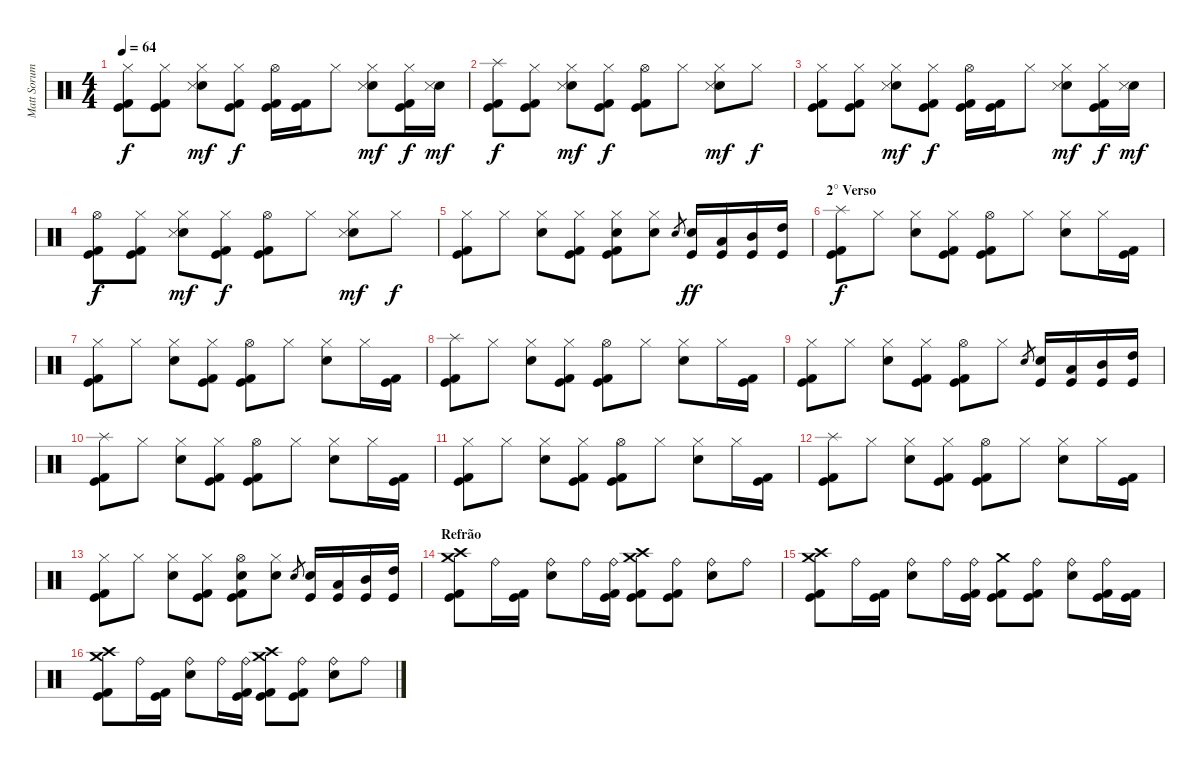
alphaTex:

\track ("Matt Sorum" "Matt Sorum") {instrument percussion}
\staff {score}
\articulation defaults
\ts (4 4)
\tempo 64
\clef neutral
\ks c
("Hi-Hat (closed)" "Kick (hit) 2" "Kick (hit)").8{dy f} ("Hi-Hat (closed)" "Kick (hit) 2" "Kick (hit)").8 ("Hi-Hat (closed)" "Electric Snare (hit)" "Snare (side stick) 3").8{dy mf} ("Hi-Hat (closed)" "Kick (hit) 2" "Kick (hit)").8{dy f} ("Hi-Hat (open)" "Kick (hit) 2" "Kick (hit)").16 ("Kick (hit)" "Kick (hit) 2").16 "Hi-Hat (closed)".8 ("Hi-Hat (closed)" "Electric Snare (hit)" "Snare (side stick) 3").8{dy mf} ("Hi-Hat (closed)" "Kick (hit) 2" "Kick (hit)").16{dy f} ("Electric Snare (hit)" "Snare (side stick) 3").16{dy mf} |
("Splash (hit)" "Kick (hit) 2" "Kick (hit)").8{dy f} ("Hi-Hat (closed)" "Kick (hit) 2" "Kick (hit)").8 ("Hi-Hat (closed)" "Electric Snare (hit)" "Snare (side stick) 3").8{dy mf} ("Hi-Hat (closed)" "Kick (hit) 2" "Kick (hit)").8{dy f} ("Hi-Hat (open)" "Kick (hit) 2" "Kick (hit)").8 "Hi-Hat (closed)".8 ("Hi-Hat (closed)" "Electric Snare (hit)" "Snare (side stick) 3").8{dy mf} "Hi-Hat (closed)".8{dy f} |
("Hi-Hat (closed)" "Kick (hit) 2" "Kick (hit)").8 ("Hi-Hat (closed)" "Kick (hit) 2" "Kick (hit)").8 ("Hi-Hat (closed)" "Electric Snare (hit)" "Snare (side stick) 3").8{dy mf} ("Hi-Hat (closed)" "Kick (hit) 2" "Kick (hit)").8{dy f} ("Hi-Hat (open)" "Kick (hit) 2" "Kick (hit)").16 ("Kick (hit)" "Kick (hit) 2").16 "Hi-Hat (closed)".8 ("Hi-Hat (closed)" "Electric Snare (hit)" "Snare (side stick) 3").8{dy mf} ("Hi-Hat (closed)" "Kick (hit) 2" "Kick (hit)").16{dy f} ("Electric Snare (hit)" "Snare (side stick) 3").16{dy mf} |
("Hi-Hat (open)" "Kick (hit) 2" "Kick (hit)").8{dy f} ("Hi-Hat (closed)" "Kick (hit) 2" "Kick (hit)").8 ("Hi-Hat (closed)" "Electric Snare (hit)" "Snare (side stick) 3").8{dy mf} ("Hi-Hat (closed)" "Kick (hit) 2" "Kick (hit)").8{dy f} ("Hi-Hat (open)" "Kick (hit) 2" "Kick (hit)").8 "Hi-Hat (closed)".8 ("Hi-Hat (closed)" "Electric Snare (hit)" "Snare (side stick) 3").8{dy mf} "Hi-Hat (closed)".8{dy f} |
("Hi-Hat (closed)" "Kick (hit) 2" "Kick (hit)").8 "Hi-Hat (closed)".8 ("Hi-Hat (closed)" "Electric Snare (hit)").8 ("Hi-Hat (closed)" "Kick (hit) 2" "Kick (hit)").8 ("Hi-Hat (closed)" "Electric Snare (hit)" "Kick (hit) 2" "Kick (hit)").8 ("Hi-Hat (closed)" "Electric Snare (hit)").8 "Electric Snare (hit)".8{gr} ("Electric Snare (hit)" "Kick (hit)").16{dy ff} ("Low Tom (hit)" "Kick (hit)").16 ("Mid Tom (hit)" "Kick (hit)").16 ("High Tom (hit)" "Kick (hit)").16 |
\section ("" "2° Verso")
("Splash (hit)" "Kick (hit) 2" "Kick (hit)").8{dy f} "Hi-Hat (closed)".8 ("Hi-Hat (closed)" "Electric Snare (hit)").8 ("Hi-Hat (closed)" "Kick (hit) 2" "Kick (hit)").8 ("Hi-Hat (open)" "Kick (hit) 2" "Kick (hit)").8 "Hi-Hat (closed)".8 ("Hi-Hat (closed)" "Electric Snare (hit)").8 "Hi-Hat (closed)".16 ("Kick (hit) 2" "Kick (hit)").16 |
("Hi-Hat (closed)" "Kick (hit) 2" "Kick (hit)").8 "Hi-Hat (closed)".8 ("Hi-Hat (closed)" "Electric Snare (hit)").8 ("Hi-Hat (closed)" "Kick (hit) 2" "Kick (hit)").8 ("Hi-Hat (open)" "Kick (hit) 2" "Kick (hit)").8 "Hi-Hat (closed)".8 ("Hi-Hat (closed)" "Electric Snare (hit)").8 "Hi-Hat (closed)".16 ("Kick (hit) 2" "Kick (hit)").16 |
("Splash (hit)" "Kick (hit) 2" "Kick (hit)").8 "Hi-Hat (closed)".8 ("Hi-Hat (closed)" "Electric Snare (hit)").8 ("Hi-Hat (closed)" "Kick (hit) 2" "Kick (hit)").8 ("Hi-Hat (open)" "Kick (hit) 2" "Kick (hit)").8 "Hi-Hat (closed)".8 ("Hi-Hat (closed)" "Electric Snare (hit)").8 "Hi-Hat (closed)".16 ("Kick (hit) 2" "Kick (hit)").16 |
("Hi-Hat (closed)" "Kick (hit) 2" "Kick (hit)").8 "Hi-Hat (closed)".8 ("Hi-Hat (closed)" "Electric Snare (hit)").8 ("Hi-Hat (closed)" "Kick (hit) 2" "Kick (hit)").8 ("Hi-Hat (open)" "Kick (hit) 2" "Kick (hit)").8 "Hi-Hat (closed)".8 "Electric Snare (hit)".8{gr} ("Electric Snare (hit)" "Kick (hit)").16 ("Low Tom (hit)" "Kick (hit)").16 ("Mid Tom (hit)" "Kick (hit)").16 ("High Tom (hit)" "Kick (hit)").16 |
("Splash (hit)" "Kick (hit) 2" "Kick (hit)").8 "Hi-Hat (closed)".8 ("Hi-Hat (closed)" "Electric Snare (hit)").8 ("Hi-Hat (closed)" "Kick (hit) 2" "Kick (hit)").8 ("Hi-Hat (open)" "Kick (hit) 2" "Kick (hit)").8 "Hi-Hat (closed)".8 ("Hi-Hat (closed)" "Electric Snare (hit)").8 "Hi-Hat (closed)".16 ("Kick (hit) 2" "Kick (hit)").16 |
("Hi-Hat (closed)" "Kick (hit) 2" "Kick (hit)").8 "Hi-Hat (closed)".8 ("Hi-Hat (closed)" "Electric Snare (hit)").8 ("Hi-Hat (closed)" "Kick (hit) 2" "Kick (hit)").8 ("Hi-Hat (open)" "Kick (hit) 2" "Kick (hit)").8 "Hi-Hat (closed)".8 ("Hi-Hat (closed)" "Electric Snare (hit)").8 "Hi-Hat (closed)".16 ("Kick (hit) 2" "Kick (hit)").16 |
("Splash (hit)" "Kick (hit) 2" "Kick (hit)").8 "Hi-Hat (closed)".8 ("Hi-Hat (closed)" "Electric Snare (hit)").8 ("Hi-Hat (closed)" "Kick (hit) 2" "Kick (hit)").8 ("Hi-Hat (open)" "Kick (hit) 2" "Kick (hit)").8 "Hi-Hat (closed)".8 ("Hi-Hat (closed)" "Electric Snare (hit)").8 "Hi-Hat (closed)".16 ("Kick (hit) 2" "Kick (hit)").16 |
("Hi-Hat (closed)" "Kick (hit) 2" "Kick (hit)").8 "Hi-Hat (closed)".8 ("Hi-Hat (closed)" "Electric Snare (hit)").8 ("Hi-Hat (closed)" "Kick (hit) 2" "Kick (hit)").8 ("Hi-Hat (open)" "Electric Snare (hit)" "Kick (hit) 2" "Kick (hit)").8 ("Hi-Hat (closed)" "Electric Snare (hit)").8 "Electric Snare (hit)".8{gr} ("Electric Snare (hit)" "Kick (hit)").16 ("Low Tom (hit)" "Kick (hit)").16 ("Mid Tom (hit)" "Kick (hit)").16 ("High Tom (hit)" "Kick (hit)").16 |
\section ("" "Refrão")
("Crash medium (hit)" "Crash high (hit)" "Kick (hit) 2" "Kick (hit)").8 "Ride (bell)".16 ("Kick (hit) 2" "Kick (hit)").16 ("Ride (bell)" "Electric Snare (hit)").8 "Ride (bell)".16 ("Ride (bell)" "Kick (hit) 2" "Kick (hit)").16 ("Crash medium (hit)" "Crash high (hit)" "Kick (hit) 2" "Kick (hit)").8 ("Ride (bell)" "Kick (hit) 2" "Kick (hit)").8 ("Ride (bell)" "Electric Snare (hit)").8 "Ride (bell)".8 |
("Crash medium (hit)" "Crash high (hit)" "Kick (hit) 2" "Kick (hit)").8 "Ride (bell)".16 ("Kick (hit) 2" "Kick (hit)").16 ("Ride (bell)" "Electric Snare (hit)").8 "Ride (bell)".16 ("Ride (bell)" "Kick (hit) 2" "Kick (hit)").16 ("Crash medium (hit)" "Kick (hit) 2" "Kick (hit)").8 ("Ride (bell)" "Kick (hit) 2" "Kick (hit)").8 ("Ride (bell)" "Electric Snare (hit)").8 ("Ride (bell)" "Kick (hit) 2" "Kick (hit)").16 ("Kick (hit) 2" "Kick (hit)").16 |
("Crash medium (hit)" "Crash high (hit)" "Kick (hit) 2" "Kick (hit)").8 "Ride (bell)".16 ("Kick (hit) 2" "Kick (hit)").16 ("Ride (bell)" "Electric Snare (hit)").8 "Ride (bell)".16 ("Ride (bell)" "Kick (hit) 2" "Kick (hit)").16 ("Crash medium (hit)" "Crash high (hit)" "Kick (hit) 2" "Kick (hit)").8 ("Ride (bell)" "Kick (hit) 2" "Kick (hit)").8 ("Ride (bell)" "Electric Snare (hit)").8 "Ride (bell)".8
